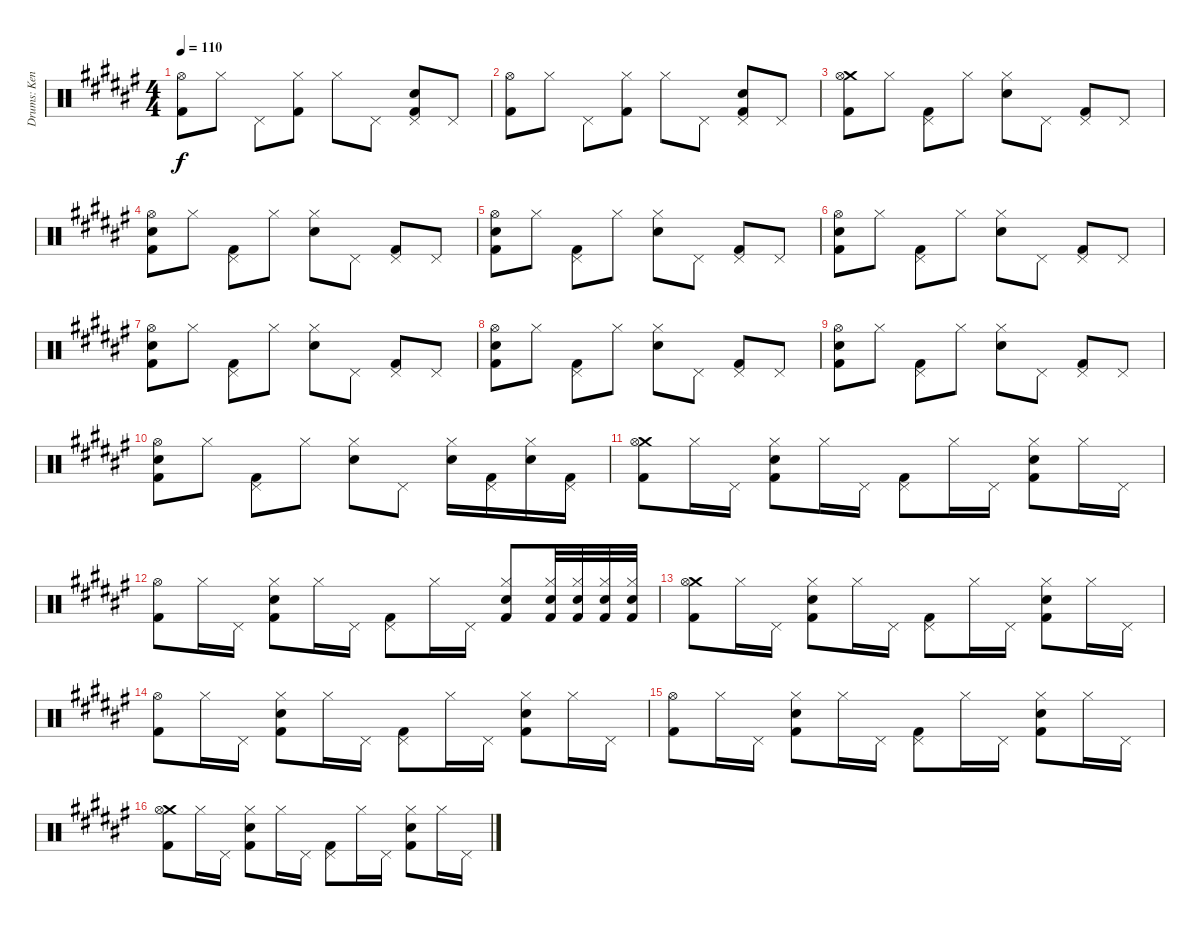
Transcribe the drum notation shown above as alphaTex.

\track ("Drums: Kenny Aronoff" "Drums: Ken") {instrument percussion}
\staff {score}
\articulation defaults
\ts (4 4)
\tempo 110
\clef neutral
\ks f#
("Hi-Hat (open)" "Kick (hit) 2").8{dy f} "Hi-Hat (closed)".8 "Pedal Hi-Hat (hit)".8 ("Hi-Hat (closed)" "Kick (hit) 2").8 "Hi-Hat (closed)".8 "Pedal Hi-Hat (hit)".8 ("Pedal Hi-Hat (hit)" "Snare (hit) 2" "Kick (hit) 2").8 "Pedal Hi-Hat (hit)".8 |
("Hi-Hat (open)" "Kick (hit) 2").8 "Hi-Hat (closed)".8 "Pedal Hi-Hat (hit)".8 ("Hi-Hat (closed)" "Kick (hit) 2").8 "Hi-Hat (closed)".8 "Pedal Hi-Hat (hit)".8 ("Pedal Hi-Hat (hit)" "Snare (hit) 2" "Kick (hit) 2").8 "Pedal Hi-Hat (hit)".8 |
("Crash medium (hit)" "Hi-Hat (open)" "Kick (hit) 2").8 "Hi-Hat (closed)".8 ("Pedal Hi-Hat (hit)" "Kick (hit) 2").8 "Hi-Hat (closed)".8 ("Hi-Hat (closed)" "Snare (hit) 2").8 "Pedal Hi-Hat (hit)".8 ("Pedal Hi-Hat (hit)" "Kick (hit) 2").8 "Pedal Hi-Hat (hit)".8 |
("Hi-Hat (open)" "Snare (hit) 2" "Kick (hit) 2").8 "Hi-Hat (closed)".8 ("Pedal Hi-Hat (hit)" "Kick (hit) 2").8 "Hi-Hat (closed)".8 ("Hi-Hat (closed)" "Snare (hit) 2").8 "Pedal Hi-Hat (hit)".8 ("Pedal Hi-Hat (hit)" "Kick (hit) 2").8 "Pedal Hi-Hat (hit)".8 |
("Hi-Hat (open)" "Snare (hit) 2" "Kick (hit) 2").8 "Hi-Hat (closed)".8 ("Pedal Hi-Hat (hit)" "Kick (hit) 2").8 "Hi-Hat (closed)".8 ("Hi-Hat (closed)" "Snare (hit) 2").8 "Pedal Hi-Hat (hit)".8 ("Pedal Hi-Hat (hit)" "Kick (hit) 2").8 "Pedal Hi-Hat (hit)".8 |
("Hi-Hat (open)" "Snare (hit) 2" "Kick (hit) 2").8 "Hi-Hat (closed)".8 ("Pedal Hi-Hat (hit)" "Kick (hit) 2").8 "Hi-Hat (closed)".8 ("Hi-Hat (closed)" "Snare (hit) 2").8 "Pedal Hi-Hat (hit)".8 ("Pedal Hi-Hat (hit)" "Kick (hit) 2").8 "Pedal Hi-Hat (hit)".8 |
("Hi-Hat (open)" "Snare (hit) 2" "Kick (hit) 2").8 "Hi-Hat (closed)".8 ("Pedal Hi-Hat (hit)" "Kick (hit) 2").8 "Hi-Hat (closed)".8 ("Hi-Hat (closed)" "Snare (hit) 2").8 "Pedal Hi-Hat (hit)".8 ("Pedal Hi-Hat (hit)" "Kick (hit) 2").8 "Pedal Hi-Hat (hit)".8 |
("Hi-Hat (open)" "Snare (hit) 2" "Kick (hit) 2").8 "Hi-Hat (closed)".8 ("Pedal Hi-Hat (hit)" "Kick (hit) 2").8 "Hi-Hat (closed)".8 ("Hi-Hat (closed)" "Snare (hit) 2").8 "Pedal Hi-Hat (hit)".8 ("Pedal Hi-Hat (hit)" "Kick (hit) 2").8 "Pedal Hi-Hat (hit)".8 |
("Hi-Hat (open)" "Snare (hit) 2" "Kick (hit) 2").8 "Hi-Hat (closed)".8 ("Pedal Hi-Hat (hit)" "Kick (hit) 2").8 "Hi-Hat (closed)".8 ("Hi-Hat (closed)" "Snare (hit) 2").8 "Pedal Hi-Hat (hit)".8 ("Pedal Hi-Hat (hit)" "Kick (hit) 2").8 "Pedal Hi-Hat (hit)".8 |
("Hi-Hat (open)" "Snare (hit) 2" "Kick (hit) 2").8 "Hi-Hat (closed)".8 ("Pedal Hi-Hat (hit)" "Kick (hit) 2").8 "Hi-Hat (closed)".8 ("Hi-Hat (closed)" "Snare (hit) 2").8 "Pedal Hi-Hat (hit)".8 ("Hi-Hat (closed)" "Snare (hit) 2").16 ("Pedal Hi-Hat (hit)" "Kick (hit) 2").16 ("Hi-Hat (closed)" "Snare (hit) 2").16 ("Pedal Hi-Hat (hit)" "Kick (hit) 2").16 |
("Crash medium (hit)" "Hi-Hat (open)" "Kick (hit) 2").8 "Hi-Hat (closed)".16 "Pedal Hi-Hat (hit)".16 ("Hi-Hat (closed)" "Snare (hit) 2" "Kick (hit) 2").8 "Hi-Hat (closed)".16 "Pedal Hi-Hat (hit)".16 ("Pedal Hi-Hat (hit)" "Kick (hit) 2").8 "Hi-Hat (closed)".16 "Pedal Hi-Hat (hit)".16 ("Hi-Hat (closed)" "Snare (hit) 2" "Kick (hit) 2").8 "Hi-Hat (closed)".16 "Pedal Hi-Hat (hit)".16 |
("Hi-Hat (open)" "Kick (hit) 2").8 "Hi-Hat (closed)".16 "Pedal Hi-Hat (hit)".16 ("Hi-Hat (closed)" "Snare (hit) 2" "Kick (hit) 2").8 "Hi-Hat (closed)".16 "Pedal Hi-Hat (hit)".16 ("Pedal Hi-Hat (hit)" "Kick (hit) 2").8 "Hi-Hat (closed)".16 "Pedal Hi-Hat (hit)".16 ("Hi-Hat (closed)" "Snare (hit) 2" "Kick (hit) 2").8 ("Hi-Hat (closed)" "Snare (hit) 2" "Kick (hit) 2").32 ("Hi-Hat (closed)" "Snare (hit) 2" "Kick (hit) 2").32 ("Hi-Hat (closed)" "Snare (hit) 2" "Kick (hit) 2").32 ("Hi-Hat (closed)" "Snare (hit) 2" "Kick (hit) 2").32 |
("Crash medium (hit)" "Hi-Hat (open)" "Kick (hit) 2").8 "Hi-Hat (closed)".16 "Pedal Hi-Hat (hit)".16 ("Hi-Hat (closed)" "Snare (hit) 2" "Kick (hit) 2").8 "Hi-Hat (closed)".16 "Pedal Hi-Hat (hit)".16 ("Pedal Hi-Hat (hit)" "Kick (hit) 2").8 "Hi-Hat (closed)".16 "Pedal Hi-Hat (hit)".16 ("Hi-Hat (closed)" "Snare (hit) 2" "Kick (hit) 2").8 "Hi-Hat (closed)".16 "Pedal Hi-Hat (hit)".16 |
("Hi-Hat (open)" "Kick (hit) 2").8 "Hi-Hat (closed)".16 "Pedal Hi-Hat (hit)".16 ("Hi-Hat (closed)" "Snare (hit) 2" "Kick (hit) 2").8 "Hi-Hat (closed)".16 "Pedal Hi-Hat (hit)".16 ("Pedal Hi-Hat (hit)" "Kick (hit) 2").8 "Hi-Hat (closed)".16 "Pedal Hi-Hat (hit)".16 ("Hi-Hat (closed)" "Snare (hit) 2" "Kick (hit) 2").8 "Hi-Hat (closed)".16 "Pedal Hi-Hat (hit)".16 |
("Hi-Hat (open)" "Kick (hit) 2").8 "Hi-Hat (closed)".16 "Pedal Hi-Hat (hit)".16 ("Hi-Hat (closed)" "Snare (hit) 2" "Kick (hit) 2").8 "Hi-Hat (closed)".16 "Pedal Hi-Hat (hit)".16 ("Pedal Hi-Hat (hit)" "Kick (hit) 2").8 "Hi-Hat (closed)".16 "Pedal Hi-Hat (hit)".16 ("Hi-Hat (closed)" "Snare (hit) 2" "Kick (hit) 2").8 "Hi-Hat (closed)".16 "Pedal Hi-Hat (hit)".16 |
("Crash medium (hit)" "Hi-Hat (open)" "Kick (hit) 2").8 "Hi-Hat (closed)".16 "Pedal Hi-Hat (hit)".16 ("Hi-Hat (closed)" "Snare (hit) 2" "Kick (hit) 2").8 "Hi-Hat (closed)".16 "Pedal Hi-Hat (hit)".16 ("Pedal Hi-Hat (hit)" "Kick (hit) 2").8 "Hi-Hat (closed)".16 "Pedal Hi-Hat (hit)".16 ("Hi-Hat (closed)" "Snare (hit) 2" "Kick (hit) 2").8 "Hi-Hat (closed)".16 "Pedal Hi-Hat (hit)".16
